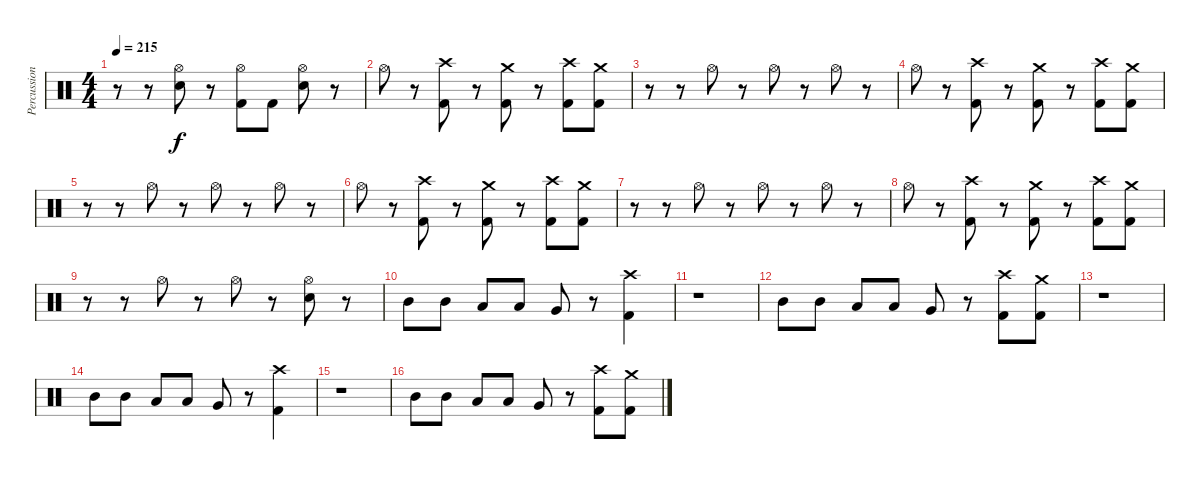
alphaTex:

\track ("Percussion" "Percussion") {instrument percussion}
\staff {score}
\articulation defaults
\ts (4 4)
\tempo 215
\clef neutral
\ks c
r.8{dy f} r.8 ("Hi-Hat (open)" "Snare (hit) 2").8 r.8 ("Hi-Hat (open)" "Kick (hit) 2").8 "Kick (hit) 2".8 ("Hi-Hat (open)" "Snare (hit) 2").8 r.8 |
"Hi-Hat (open)".8 r.8 ("Crash high (hit)" "Kick (hit) 2").8 r.8 ("Crash medium (hit)" "Kick (hit) 2").8 r.8 ("Crash high (hit)" "Kick (hit) 2").8 ("Crash medium (hit)" "Kick (hit) 2").8 |
r.8 r.8 "Hi-Hat (open)".8 r.8 "Hi-Hat (open)".8 r.8 "Hi-Hat (open)".8 r.8 |
"Hi-Hat (open)".8 r.8 ("Crash high (hit)" "Kick (hit) 2").8 r.8 ("Crash medium (hit)" "Kick (hit) 2").8 r.8 ("Crash high (hit)" "Kick (hit) 2").8 ("Crash medium (hit)" "Kick (hit) 2").8 |
r.8 r.8 "Hi-Hat (open)".8 r.8 "Hi-Hat (open)".8 r.8 "Hi-Hat (open)".8 r.8 |
"Hi-Hat (open)".8 r.8 ("Crash high (hit)" "Kick (hit) 2").8 r.8 ("Crash medium (hit)" "Kick (hit) 2").8 r.8 ("Crash high (hit)" "Kick (hit) 2").8 ("Crash medium (hit)" "Kick (hit) 2").8 |
r.8 r.8 "Hi-Hat (open)".8 r.8 "Hi-Hat (open)".8 r.8 "Hi-Hat (open)".8 r.8 |
"Hi-Hat (open)".8 r.8 ("Crash high (hit)" "Kick (hit) 2").8 r.8 ("Crash medium (hit)" "Kick (hit) 2").8 r.8 ("Crash high (hit)" "Kick (hit) 2").8 ("Crash medium (hit)" "Kick (hit) 2").8 |
r.8 r.8 "Hi-Hat (open)".8 r.8 "Hi-Hat (open)".8 r.8 ("Hi-Hat (open)" "Snare (hit) 2").8 r.8 |
"Mid Tom (hit)".8 "Mid Tom (hit)".8 "Low Tom (hit)".8 "Low Tom (hit)".8 "Very Low Tom (hit)".8 r.8 ("Crash high (hit)" "Kick (hit) 2").4 |
r.1 |
"Mid Tom (hit)".8 "Mid Tom (hit)".8 "Low Tom (hit)".8 "Low Tom (hit)".8 "Very Low Tom (hit)".8 r.8 ("Crash high (hit)" "Kick (hit) 2").8 ("Crash medium (hit)" "Kick (hit) 2").8 |
r.1 |
"Mid Tom (hit)".8 "Mid Tom (hit)".8 "Low Tom (hit)".8 "Low Tom (hit)".8 "Very Low Tom (hit)".8 r.8 ("Crash high (hit)" "Kick (hit) 2").4 |
r.1 |
"Mid Tom (hit)".8 "Mid Tom (hit)".8 "Low Tom (hit)".8 "Low Tom (hit)".8 "Very Low Tom (hit)".8 r.8 ("Crash high (hit)" "Kick (hit) 2").8 ("Crash medium (hit)" "Kick (hit) 2").8
